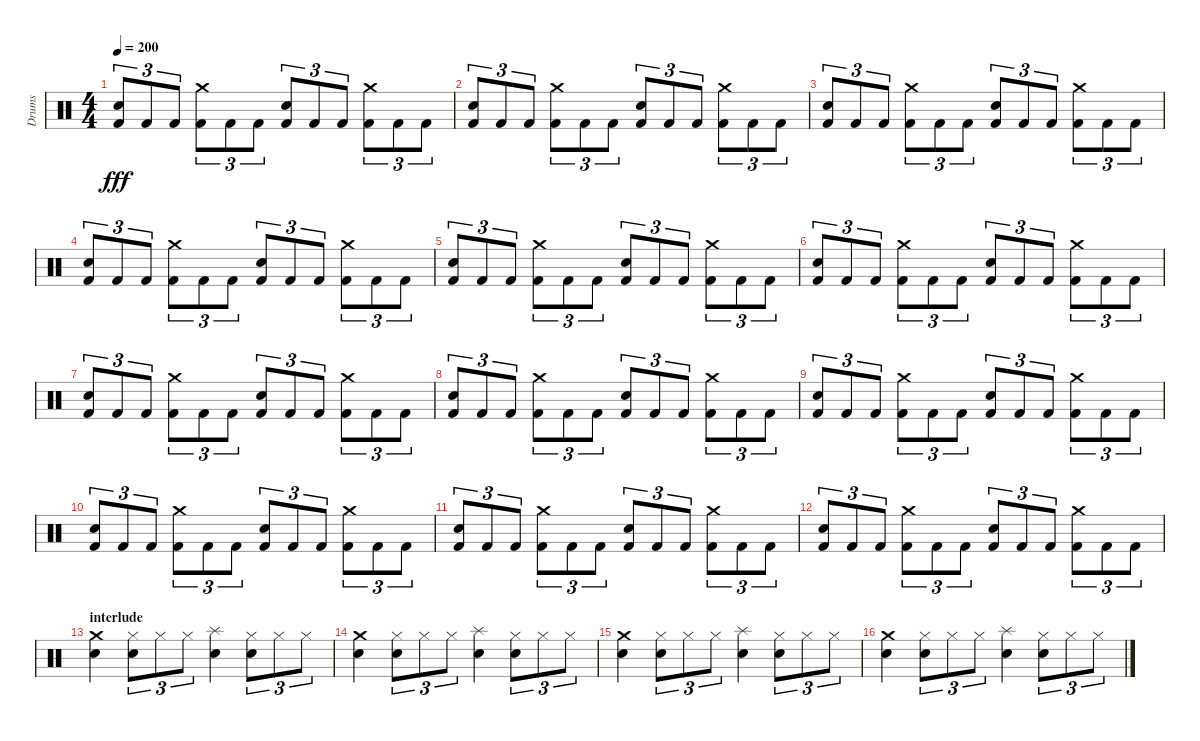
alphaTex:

\track ("Drums" "Drums") {instrument percussion}
\staff {score}
\articulation defaults
\ts (4 4)
\tempo 200
\clef neutral
\ks c
("Electric Snare (hit)" "Kick (hit) 2").8{tu (3 2) dy fff} "Kick (hit) 2".8{tu (3 2)} "Kick (hit) 2".8{tu (3 2)} ("Crash medium (hit)" "Kick (hit) 2").8{tu (3 2)} "Kick (hit) 2".8{tu (3 2)} "Kick (hit) 2".8{tu (3 2)} ("Electric Snare (hit)" "Kick (hit) 2").8{tu (3 2)} "Kick (hit) 2".8{tu (3 2)} "Kick (hit) 2".8{tu (3 2)} ("Crash medium (hit)" "Kick (hit) 2").8{tu (3 2)} "Kick (hit) 2".8{tu (3 2)} "Kick (hit) 2".8{tu (3 2)} |
("Electric Snare (hit)" "Kick (hit) 2").8{tu (3 2)} "Kick (hit) 2".8{tu (3 2)} "Kick (hit) 2".8{tu (3 2)} ("Crash medium (hit)" "Kick (hit) 2").8{tu (3 2)} "Kick (hit) 2".8{tu (3 2)} "Kick (hit) 2".8{tu (3 2)} ("Electric Snare (hit)" "Kick (hit) 2").8{tu (3 2)} "Kick (hit) 2".8{tu (3 2)} "Kick (hit) 2".8{tu (3 2)} ("Crash medium (hit)" "Kick (hit) 2").8{tu (3 2)} "Kick (hit) 2".8{tu (3 2)} "Kick (hit) 2".8{tu (3 2)} |
("Electric Snare (hit)" "Kick (hit) 2").8{tu (3 2)} "Kick (hit) 2".8{tu (3 2)} "Kick (hit) 2".8{tu (3 2)} ("Crash medium (hit)" "Kick (hit) 2").8{tu (3 2)} "Kick (hit) 2".8{tu (3 2)} "Kick (hit) 2".8{tu (3 2)} ("Electric Snare (hit)" "Kick (hit) 2").8{tu (3 2)} "Kick (hit) 2".8{tu (3 2)} "Kick (hit) 2".8{tu (3 2)} ("Crash medium (hit)" "Kick (hit) 2").8{tu (3 2)} "Kick (hit) 2".8{tu (3 2)} "Kick (hit) 2".8{tu (3 2)} |
("Electric Snare (hit)" "Kick (hit) 2").8{tu (3 2)} "Kick (hit) 2".8{tu (3 2)} "Kick (hit) 2".8{tu (3 2)} ("Crash medium (hit)" "Kick (hit) 2").8{tu (3 2)} "Kick (hit) 2".8{tu (3 2)} "Kick (hit) 2".8{tu (3 2)} ("Electric Snare (hit)" "Kick (hit) 2").8{tu (3 2)} "Kick (hit) 2".8{tu (3 2)} "Kick (hit) 2".8{tu (3 2)} ("Crash medium (hit)" "Kick (hit) 2").8{tu (3 2)} "Kick (hit) 2".8{tu (3 2)} "Kick (hit) 2".8{tu (3 2)} |
("Electric Snare (hit)" "Kick (hit) 2").8{tu (3 2)} "Kick (hit) 2".8{tu (3 2)} "Kick (hit) 2".8{tu (3 2)} ("Crash medium (hit)" "Kick (hit) 2").8{tu (3 2)} "Kick (hit) 2".8{tu (3 2)} "Kick (hit) 2".8{tu (3 2)} ("Electric Snare (hit)" "Kick (hit) 2").8{tu (3 2)} "Kick (hit) 2".8{tu (3 2)} "Kick (hit) 2".8{tu (3 2)} ("Crash medium (hit)" "Kick (hit) 2").8{tu (3 2)} "Kick (hit) 2".8{tu (3 2)} "Kick (hit) 2".8{tu (3 2)} |
("Electric Snare (hit)" "Kick (hit) 2").8{tu (3 2)} "Kick (hit) 2".8{tu (3 2)} "Kick (hit) 2".8{tu (3 2)} ("Crash medium (hit)" "Kick (hit) 2").8{tu (3 2)} "Kick (hit) 2".8{tu (3 2)} "Kick (hit) 2".8{tu (3 2)} ("Electric Snare (hit)" "Kick (hit) 2").8{tu (3 2)} "Kick (hit) 2".8{tu (3 2)} "Kick (hit) 2".8{tu (3 2)} ("Crash medium (hit)" "Kick (hit) 2").8{tu (3 2)} "Kick (hit) 2".8{tu (3 2)} "Kick (hit) 2".8{tu (3 2)} |
("Electric Snare (hit)" "Kick (hit) 2").8{tu (3 2)} "Kick (hit) 2".8{tu (3 2)} "Kick (hit) 2".8{tu (3 2)} ("Crash medium (hit)" "Kick (hit) 2").8{tu (3 2)} "Kick (hit) 2".8{tu (3 2)} "Kick (hit) 2".8{tu (3 2)} ("Electric Snare (hit)" "Kick (hit) 2").8{tu (3 2)} "Kick (hit) 2".8{tu (3 2)} "Kick (hit) 2".8{tu (3 2)} ("Crash medium (hit)" "Kick (hit) 2").8{tu (3 2)} "Kick (hit) 2".8{tu (3 2)} "Kick (hit) 2".8{tu (3 2)} |
("Electric Snare (hit)" "Kick (hit) 2").8{tu (3 2)} "Kick (hit) 2".8{tu (3 2)} "Kick (hit) 2".8{tu (3 2)} ("Crash medium (hit)" "Kick (hit) 2").8{tu (3 2)} "Kick (hit) 2".8{tu (3 2)} "Kick (hit) 2".8{tu (3 2)} ("Electric Snare (hit)" "Kick (hit) 2").8{tu (3 2)} "Kick (hit) 2".8{tu (3 2)} "Kick (hit) 2".8{tu (3 2)} ("Crash medium (hit)" "Kick (hit) 2").8{tu (3 2)} "Kick (hit) 2".8{tu (3 2)} "Kick (hit) 2".8{tu (3 2)} |
("Electric Snare (hit)" "Kick (hit) 2").8{tu (3 2)} "Kick (hit) 2".8{tu (3 2)} "Kick (hit) 2".8{tu (3 2)} ("Crash medium (hit)" "Kick (hit) 2").8{tu (3 2)} "Kick (hit) 2".8{tu (3 2)} "Kick (hit) 2".8{tu (3 2)} ("Electric Snare (hit)" "Kick (hit) 2").8{tu (3 2)} "Kick (hit) 2".8{tu (3 2)} "Kick (hit) 2".8{tu (3 2)} ("Crash medium (hit)" "Kick (hit) 2").8{tu (3 2)} "Kick (hit) 2".8{tu (3 2)} "Kick (hit) 2".8{tu (3 2)} |
("Electric Snare (hit)" "Kick (hit) 2").8{tu (3 2)} "Kick (hit) 2".8{tu (3 2)} "Kick (hit) 2".8{tu (3 2)} ("Crash medium (hit)" "Kick (hit) 2").8{tu (3 2)} "Kick (hit) 2".8{tu (3 2)} "Kick (hit) 2".8{tu (3 2)} ("Electric Snare (hit)" "Kick (hit) 2").8{tu (3 2)} "Kick (hit) 2".8{tu (3 2)} "Kick (hit) 2".8{tu (3 2)} ("Crash medium (hit)" "Kick (hit) 2").8{tu (3 2)} "Kick (hit) 2".8{tu (3 2)} "Kick (hit) 2".8{tu (3 2)} |
("Electric Snare (hit)" "Kick (hit) 2").8{tu (3 2)} "Kick (hit) 2".8{tu (3 2)} "Kick (hit) 2".8{tu (3 2)} ("Crash medium (hit)" "Kick (hit) 2").8{tu (3 2)} "Kick (hit) 2".8{tu (3 2)} "Kick (hit) 2".8{tu (3 2)} ("Electric Snare (hit)" "Kick (hit) 2").8{tu (3 2)} "Kick (hit) 2".8{tu (3 2)} "Kick (hit) 2".8{tu (3 2)} ("Crash medium (hit)" "Kick (hit) 2").8{tu (3 2)} "Kick (hit) 2".8{tu (3 2)} "Kick (hit) 2".8{tu (3 2)} |
("Electric Snare (hit)" "Kick (hit) 2").8{tu (3 2)} "Kick (hit) 2".8{tu (3 2)} "Kick (hit) 2".8{tu (3 2)} ("Crash medium (hit)" "Kick (hit) 2").8{tu (3 2)} "Kick (hit) 2".8{tu (3 2)} "Kick (hit) 2".8{tu (3 2)} ("Electric Snare (hit)" "Kick (hit) 2").8{tu (3 2)} "Kick (hit) 2".8{tu (3 2)} "Kick (hit) 2".8{tu (3 2)} ("Crash medium (hit)" "Kick (hit) 2").8{tu (3 2)} "Kick (hit) 2".8{tu (3 2)} "Kick (hit) 2".8{tu (3 2)} |
\section ("" "interlude")
("Electric Snare (hit)" "Crash medium (hit)").4 ("Hi-Hat (closed)" "Electric Snare (hit)").8{tu (3 2)} "Hi-Hat (closed)".8{tu (3 2)} "Hi-Hat (closed)".8{tu (3 2)} ("Electric Snare (hit)" "Splash (hit)").4 ("Hi-Hat (closed)" "Electric Snare (hit)").8{tu (3 2)} "Hi-Hat (closed)".8{tu (3 2)} "Hi-Hat (closed)".8{tu (3 2)} |
("Electric Snare (hit)" "Crash medium (hit)").4 ("Hi-Hat (closed)" "Electric Snare (hit)").8{tu (3 2)} "Hi-Hat (closed)".8{tu (3 2)} "Hi-Hat (closed)".8{tu (3 2)} ("Electric Snare (hit)" "Splash (hit)").4 ("Hi-Hat (closed)" "Electric Snare (hit)").8{tu (3 2)} "Hi-Hat (closed)".8{tu (3 2)} "Hi-Hat (closed)".8{tu (3 2)} |
("Electric Snare (hit)" "Crash medium (hit)").4 ("Hi-Hat (closed)" "Electric Snare (hit)").8{tu (3 2)} "Hi-Hat (closed)".8{tu (3 2)} "Hi-Hat (closed)".8{tu (3 2)} ("Electric Snare (hit)" "Splash (hit)").4 ("Hi-Hat (closed)" "Electric Snare (hit)").8{tu (3 2)} "Hi-Hat (closed)".8{tu (3 2)} "Hi-Hat (closed)".8{tu (3 2)} |
("Electric Snare (hit)" "Crash medium (hit)").4 ("Hi-Hat (closed)" "Electric Snare (hit)").8{tu (3 2)} "Hi-Hat (closed)".8{tu (3 2)} "Hi-Hat (closed)".8{tu (3 2)} ("Electric Snare (hit)" "Splash (hit)").4 ("Hi-Hat (closed)" "Electric Snare (hit)").8{tu (3 2)} "Hi-Hat (closed)".8{tu (3 2)} "Hi-Hat (closed)".8{tu (3 2)}
